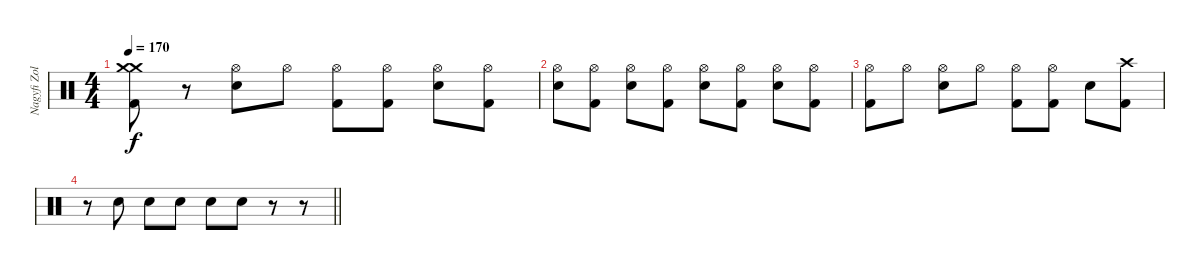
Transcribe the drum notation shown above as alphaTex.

\track ("Nagyfi Zoltán - Dob" "Nagyfi Zol") {instrument percussion}
\staff {score}
\articulation defaults
\ts (4 4)
\tempo 170
\clef neutral
\ks c
("Crash medium (hit)" "Crash medium (hit)" "Kick (hit) 2").8{dy f} r.8 ("Hi-Hat (open)" "Electric Snare (hit)").8 "Hi-Hat (open)".8 ("Hi-Hat (open)" "Kick (hit) 2").8 ("Kick (hit) 2" "Hi-Hat (open)").8 ("Hi-Hat (open)" "Electric Snare (hit)").8 ("Kick (hit) 2" "Hi-Hat (open)").8 |
("Hi-Hat (open)" "Electric Snare (hit)").8 ("Hi-Hat (open)" "Kick (hit) 2").8 ("Hi-Hat (open)" "Electric Snare (hit)").8 ("Hi-Hat (open)" "Kick (hit) 2").8 ("Hi-Hat (open)" "Electric Snare (hit)").8 ("Hi-Hat (open)" "Kick (hit) 2").8 ("Hi-Hat (open)" "Electric Snare (hit)").8 ("Hi-Hat (open)" "Kick (hit) 2").8 |
("Hi-Hat (open)" "Kick (hit) 2").8 "Hi-Hat (open)".8 ("Hi-Hat (open)" "Electric Snare (hit)").8 "Hi-Hat (open)".8 ("Hi-Hat (open)" "Kick (hit) 2").8 ("Hi-Hat (open)" "Kick (hit) 2").8 "Electric Snare (hit)".8 ("Crash high (hit)" "Kick (hit) 2").8 |
\barLineRight lightlight
r.8 "Electric Snare (hit)".8 "Electric Snare (hit)".8 "Electric Snare (hit)".8 "Electric Snare (hit)".8 "Electric Snare (hit)".8 r.8 r.8
